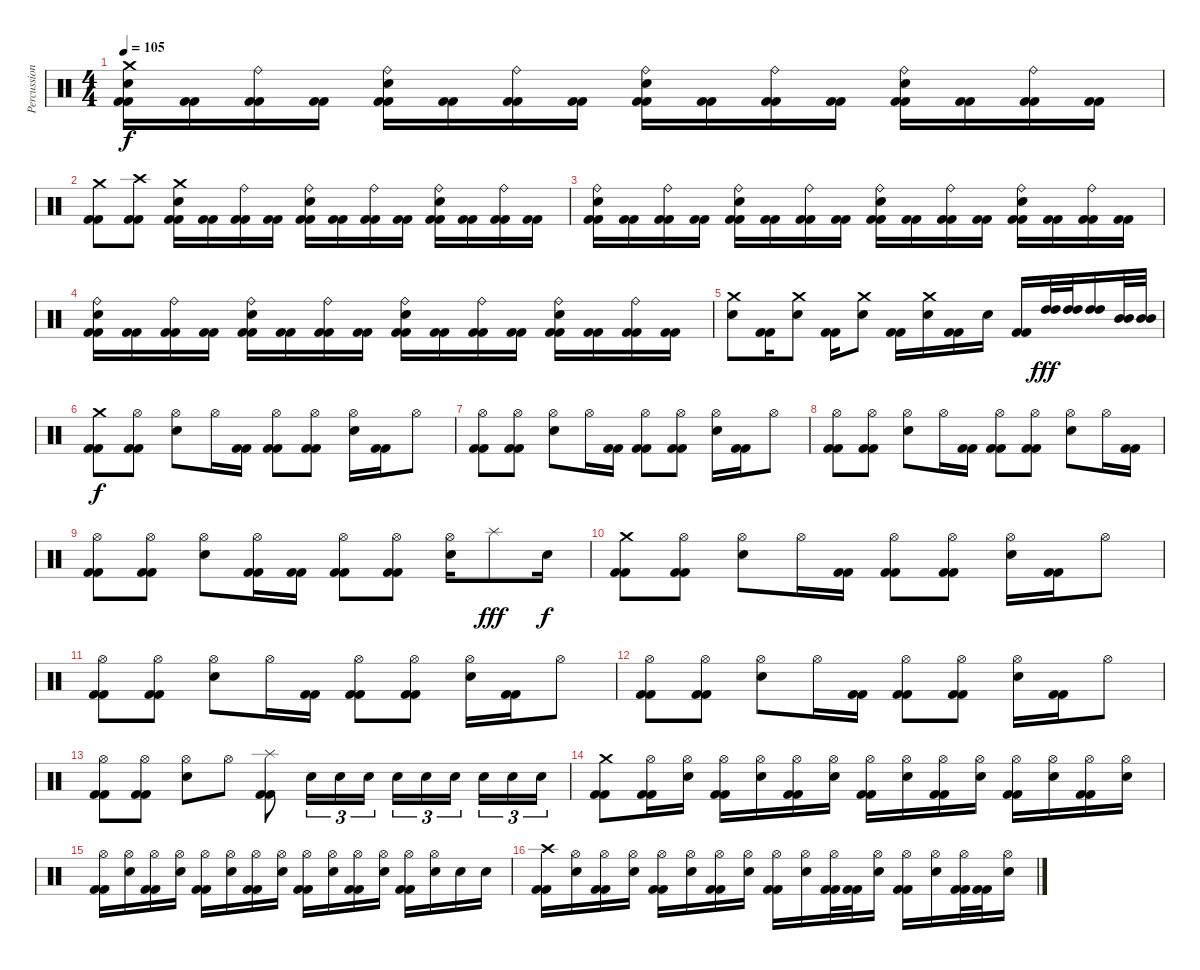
\track ("Percussion" "Percussion") {instrument percussion}
\staff {score}
\articulation defaults
\ts (4 4)
\tempo 105
\clef neutral
\ks c
("Electric Snare (hit)" "Crash medium (hit)" "Kick (hit) 2" "Kick (hit) 2").16{dy f} ("Kick (hit) 2" "Kick (hit) 2").16 ("Ride (bell)" "Kick (hit) 2" "Kick (hit) 2").16 ("Kick (hit) 2" "Kick (hit) 2").16 ("Electric Snare (hit)" "Ride (bell)" "Kick (hit) 2" "Kick (hit) 2").16 ("Kick (hit) 2" "Kick (hit) 2").16 ("Ride (bell)" "Kick (hit) 2" "Kick (hit) 2").16 ("Kick (hit) 2" "Kick (hit) 2").16 ("Electric Snare (hit)" "Ride (bell)" "Kick (hit) 2" "Kick (hit) 2").16 ("Kick (hit) 2" "Kick (hit) 2").16 ("Ride (bell)" "Kick (hit) 2" "Kick (hit) 2").16 ("Kick (hit) 2" "Kick (hit) 2").16 ("Electric Snare (hit)" "Ride (bell)" "Kick (hit) 2" "Kick (hit) 2").16 ("Kick (hit) 2" "Kick (hit) 2").16 ("Ride (bell)" "Kick (hit) 2" "Kick (hit) 2").16 ("Kick (hit) 2" "Kick (hit) 2").16 |
("Kick (hit) 2" "Kick (hit) 2" "Crash medium (hit)").8 ("Kick (hit) 2" "Kick (hit) 2" "Crash high (hit)").8 ("Crash medium (hit)" "Electric Snare (hit)" "Kick (hit) 2" "Kick (hit) 2").16 ("Kick (hit) 2" "Kick (hit) 2").16 ("Ride (bell)" "Kick (hit) 2" "Kick (hit) 2").16 ("Kick (hit) 2" "Kick (hit) 2").16 ("Electric Snare (hit)" "Ride (bell)" "Kick (hit) 2" "Kick (hit) 2").16 ("Kick (hit) 2" "Kick (hit) 2").16 ("Ride (bell)" "Kick (hit) 2" "Kick (hit) 2").16 ("Kick (hit) 2" "Kick (hit) 2").16 ("Electric Snare (hit)" "Ride (bell)" "Kick (hit) 2" "Kick (hit) 2").16 ("Kick (hit) 2" "Kick (hit) 2").16 ("Ride (bell)" "Kick (hit) 2" "Kick (hit) 2").16 ("Kick (hit) 2" "Kick (hit) 2").16 |
("Electric Snare (hit)" "Ride (bell)" "Kick (hit) 2" "Kick (hit) 2").16 ("Kick (hit) 2" "Kick (hit) 2").16 ("Ride (bell)" "Kick (hit) 2" "Kick (hit) 2").16 ("Kick (hit) 2" "Kick (hit) 2").16 ("Electric Snare (hit)" "Ride (bell)" "Kick (hit) 2" "Kick (hit) 2").16 ("Kick (hit) 2" "Kick (hit) 2").16 ("Ride (bell)" "Kick (hit) 2" "Kick (hit) 2").16 ("Kick (hit) 2" "Kick (hit) 2").16 ("Electric Snare (hit)" "Ride (bell)" "Kick (hit) 2" "Kick (hit) 2").16 ("Kick (hit) 2" "Kick (hit) 2").16 ("Ride (bell)" "Kick (hit) 2" "Kick (hit) 2").16 ("Kick (hit) 2" "Kick (hit) 2").16 ("Electric Snare (hit)" "Ride (bell)" "Kick (hit) 2" "Kick (hit) 2").16 ("Kick (hit) 2" "Kick (hit) 2").16 ("Ride (bell)" "Kick (hit) 2" "Kick (hit) 2").16 ("Kick (hit) 2" "Kick (hit) 2").16 |
("Electric Snare (hit)" "Ride (bell)" "Kick (hit) 2" "Kick (hit) 2").16 ("Kick (hit) 2" "Kick (hit) 2").16 ("Ride (bell)" "Kick (hit) 2" "Kick (hit) 2").16 ("Kick (hit) 2" "Kick (hit) 2").16 ("Electric Snare (hit)" "Ride (bell)" "Kick (hit) 2" "Kick (hit) 2").16 ("Kick (hit) 2" "Kick (hit) 2").16 ("Ride (bell)" "Kick (hit) 2" "Kick (hit) 2").16 ("Kick (hit) 2" "Kick (hit) 2").16 ("Electric Snare (hit)" "Ride (bell)" "Kick (hit) 2" "Kick (hit) 2").16 ("Kick (hit) 2" "Kick (hit) 2").16 ("Ride (bell)" "Kick (hit) 2" "Kick (hit) 2").16 ("Kick (hit) 2" "Kick (hit) 2").16 ("Electric Snare (hit)" "Ride (bell)" "Kick (hit) 2" "Kick (hit) 2").16 ("Kick (hit) 2" "Kick (hit) 2").16 ("Ride (bell)" "Kick (hit) 2" "Kick (hit) 2").16 ("Kick (hit) 2" "Kick (hit) 2").16 |
("Electric Snare (hit)" "Crash medium (hit)").8 ("Kick (hit) 2" "Kick (hit) 2").16 ("Electric Snare (hit)" "Crash medium (hit)").8 ("Kick (hit) 2" "Kick (hit) 2").16 ("Electric Snare (hit)" "Crash medium (hit)").8 ("Kick (hit) 2" "Kick (hit) 2").16 ("Electric Snare (hit)" "Crash medium (hit)").16 ("Kick (hit) 2" "Kick (hit) 2").16 "Electric Snare (hit)".16 ("Kick (hit) 2" "Kick (hit) 2").16 ("High Tom (hit)" "High Tom (hit)").32{dy fff} ("High Tom (hit)" "High Tom (hit)").32 ("High Tom (hit)" "High Tom (hit)").16 ("Mid Tom (hit)" "Mid Tom (hit)").32 ("Mid Tom (hit)" "Mid Tom (hit)").32 |
("Kick (hit) 2" "Kick (hit) 2" "Crash medium (hit)").8{dy f} ("Kick (hit) 2" "Kick (hit) 2" "Hi-Hat (open)").8 ("Hi-Hat (open)" "Electric Snare (hit)").8 "Hi-Hat (open)".16 ("Kick (hit) 2" "Kick (hit) 2").16 ("Kick (hit) 2" "Kick (hit) 2" "Hi-Hat (open)").8 ("Kick (hit) 2" "Kick (hit) 2" "Hi-Hat (open)").8 ("Hi-Hat (open)" "Electric Snare (hit)").16 ("Kick (hit) 2" "Kick (hit) 2").16 "Hi-Hat (open)".8 |
("Kick (hit) 2" "Kick (hit) 2" "Hi-Hat (open)").8 ("Kick (hit) 2" "Kick (hit) 2" "Hi-Hat (open)").8 ("Hi-Hat (open)" "Electric Snare (hit)").8 "Hi-Hat (open)".16 ("Kick (hit) 2" "Kick (hit) 2").16 ("Kick (hit) 2" "Kick (hit) 2" "Hi-Hat (open)").8 ("Kick (hit) 2" "Kick (hit) 2" "Hi-Hat (open)").8 ("Hi-Hat (open)" "Electric Snare (hit)").16 ("Kick (hit) 2" "Kick (hit) 2").16 "Hi-Hat (open)".8 |
("Kick (hit) 2" "Kick (hit) 2" "Hi-Hat (open)").8 ("Kick (hit) 2" "Kick (hit) 2" "Hi-Hat (open)").8 ("Hi-Hat (open)" "Electric Snare (hit)").8 "Hi-Hat (open)".16 ("Kick (hit) 2" "Kick (hit) 2").16 ("Kick (hit) 2" "Kick (hit) 2" "Hi-Hat (open)").8 ("Kick (hit) 2" "Kick (hit) 2" "Hi-Hat (open)").8 ("Hi-Hat (open)" "Electric Snare (hit)").8 "Hi-Hat (open)".16 ("Kick (hit) 2" "Kick (hit) 2").16 |
("Kick (hit) 2" "Kick (hit) 2" "Hi-Hat (open)").8 ("Kick (hit) 2" "Kick (hit) 2" "Hi-Hat (open)").8 ("Hi-Hat (open)" "Electric Snare (hit)").8 ("Kick (hit) 2" "Kick (hit) 2" "Hi-Hat (open)").16 ("Kick (hit) 2" "Kick (hit) 2").16 ("Kick (hit) 2" "Kick (hit) 2" "Hi-Hat (open)").8 ("Kick (hit) 2" "Kick (hit) 2" "Hi-Hat (open)").8 ("Hi-Hat (open)" "Electric Snare (hit)").16 "Splash (hit)".8{dy fff} "Electric Snare (hit)".16{dy f} |
("Kick (hit) 2" "Kick (hit) 2" "Crash medium (hit)").8 ("Kick (hit) 2" "Kick (hit) 2" "Hi-Hat (open)").8 ("Hi-Hat (open)" "Electric Snare (hit)").8 "Hi-Hat (open)".16 ("Kick (hit) 2" "Kick (hit) 2").16 ("Kick (hit) 2" "Kick (hit) 2" "Hi-Hat (open)").8 ("Kick (hit) 2" "Kick (hit) 2" "Hi-Hat (open)").8 ("Hi-Hat (open)" "Electric Snare (hit)").16 ("Kick (hit) 2" "Kick (hit) 2").16 "Hi-Hat (open)".8 |
("Kick (hit) 2" "Kick (hit) 2" "Hi-Hat (open)").8 ("Kick (hit) 2" "Kick (hit) 2" "Hi-Hat (open)").8 ("Hi-Hat (open)" "Electric Snare (hit)").8 "Hi-Hat (open)".16 ("Kick (hit) 2" "Kick (hit) 2").16 ("Kick (hit) 2" "Kick (hit) 2" "Hi-Hat (open)").8 ("Kick (hit) 2" "Kick (hit) 2" "Hi-Hat (open)").8 ("Hi-Hat (open)" "Electric Snare (hit)").16 ("Kick (hit) 2" "Kick (hit) 2").16 "Hi-Hat (open)".8 |
("Kick (hit) 2" "Kick (hit) 2" "Hi-Hat (open)").8 ("Kick (hit) 2" "Kick (hit) 2" "Hi-Hat (open)").8 ("Hi-Hat (open)" "Electric Snare (hit)").8 "Hi-Hat (open)".16 ("Kick (hit) 2" "Kick (hit) 2").16 ("Kick (hit) 2" "Kick (hit) 2" "Hi-Hat (open)").8 ("Kick (hit) 2" "Kick (hit) 2" "Hi-Hat (open)").8 ("Hi-Hat (open)" "Electric Snare (hit)").16 ("Kick (hit) 2" "Kick (hit) 2").16 "Hi-Hat (open)".8 |
("Kick (hit) 2" "Kick (hit) 2" "Hi-Hat (open)").8 ("Kick (hit) 2" "Kick (hit) 2" "Hi-Hat (open)").8 ("Hi-Hat (open)" "Electric Snare (hit)").8 "Hi-Hat (open)".8 ("Kick (hit) 2" "Kick (hit) 2" "Splash (hit)").8 "Electric Snare (hit)".16{tu (3 2)} "Electric Snare (hit)".16{tu (3 2)} "Electric Snare (hit)".16{tu (3 2)} "Electric Snare (hit)".16{tu (3 2)} "Electric Snare (hit)".16{tu (3 2)} "Electric Snare (hit)".16{tu (3 2)} "Electric Snare (hit)".16{tu (3 2)} "Electric Snare (hit)".16{tu (3 2)} "Electric Snare (hit)".16{tu (3 2)} |
("Kick (hit) 2" "Kick (hit) 2" "Crash medium (hit)").8 ("Kick (hit) 2" "Kick (hit) 2" "Hi-Hat (open)").16 ("Hi-Hat (open)" "Electric Snare (hit)").16 ("Kick (hit) 2" "Kick (hit) 2" "Hi-Hat (open)").16 ("Hi-Hat (open)" "Electric Snare (hit)").16 ("Kick (hit) 2" "Kick (hit) 2" "Hi-Hat (open)").16 ("Hi-Hat (open)" "Electric Snare (hit)").16 ("Kick (hit) 2" "Kick (hit) 2" "Hi-Hat (open)").16 ("Hi-Hat (open)" "Electric Snare (hit)").16 ("Kick (hit) 2" "Kick (hit) 2" "Hi-Hat (open)").16 ("Hi-Hat (open)" "Electric Snare (hit)").16 ("Kick (hit) 2" "Kick (hit) 2" "Hi-Hat (open)").16 ("Hi-Hat (open)" "Electric Snare (hit)").16 ("Kick (hit) 2" "Kick (hit) 2" "Hi-Hat (open)").16 ("Hi-Hat (open)" "Electric Snare (hit)").16 |
("Kick (hit) 2" "Kick (hit) 2" "Hi-Hat (open)").16 ("Hi-Hat (open)" "Electric Snare (hit)").16 ("Kick (hit) 2" "Kick (hit) 2" "Hi-Hat (open)").16 ("Hi-Hat (open)" "Electric Snare (hit)").16 ("Kick (hit) 2" "Kick (hit) 2" "Hi-Hat (open)").16 ("Hi-Hat (open)" "Electric Snare (hit)").16 ("Kick (hit) 2" "Kick (hit) 2" "Hi-Hat (open)").16 ("Hi-Hat (open)" "Electric Snare (hit)").16 ("Kick (hit) 2" "Kick (hit) 2" "Hi-Hat (open)").16 ("Hi-Hat (open)" "Electric Snare (hit)").16 ("Kick (hit) 2" "Kick (hit) 2" "Hi-Hat (open)").16 ("Hi-Hat (open)" "Electric Snare (hit)").16 ("Kick (hit) 2" "Kick (hit) 2" "Hi-Hat (open)").16 ("Hi-Hat (open)" "Electric Snare (hit)").16 "Electric Snare (hit)".16 "Electric Snare (hit)".16 |
("Kick (hit) 2" "Kick (hit) 2" "Crash high (hit)").16 ("Hi-Hat (open)" "Electric Snare (hit)").16 ("Kick (hit) 2" "Kick (hit) 2" "Hi-Hat (open)").16 ("Hi-Hat (open)" "Electric Snare (hit)").16 ("Kick (hit) 2" "Kick (hit) 2" "Hi-Hat (open)").16 ("Hi-Hat (open)" "Electric Snare (hit)").16 ("Kick (hit) 2" "Kick (hit) 2" "Hi-Hat (open)").16 ("Hi-Hat (open)" "Electric Snare (hit)").16 ("Kick (hit) 2" "Kick (hit) 2" "Hi-Hat (open)").16 ("Hi-Hat (open)" "Electric Snare (hit)").16 ("Kick (hit) 2" "Kick (hit) 2" "Hi-Hat (open)").32 ("Kick (hit) 2" "Kick (hit) 2").32 ("Hi-Hat (open)" "Electric Snare (hit)").16 ("Kick (hit) 2" "Kick (hit) 2" "Hi-Hat (open)").16 ("Hi-Hat (open)" "Electric Snare (hit)").16 ("Kick (hit) 2" "Kick (hit) 2" "Hi-Hat (open)").32 ("Kick (hit) 2" "Kick (hit) 2").32 ("Hi-Hat (open)" "Electric Snare (hit)").16
